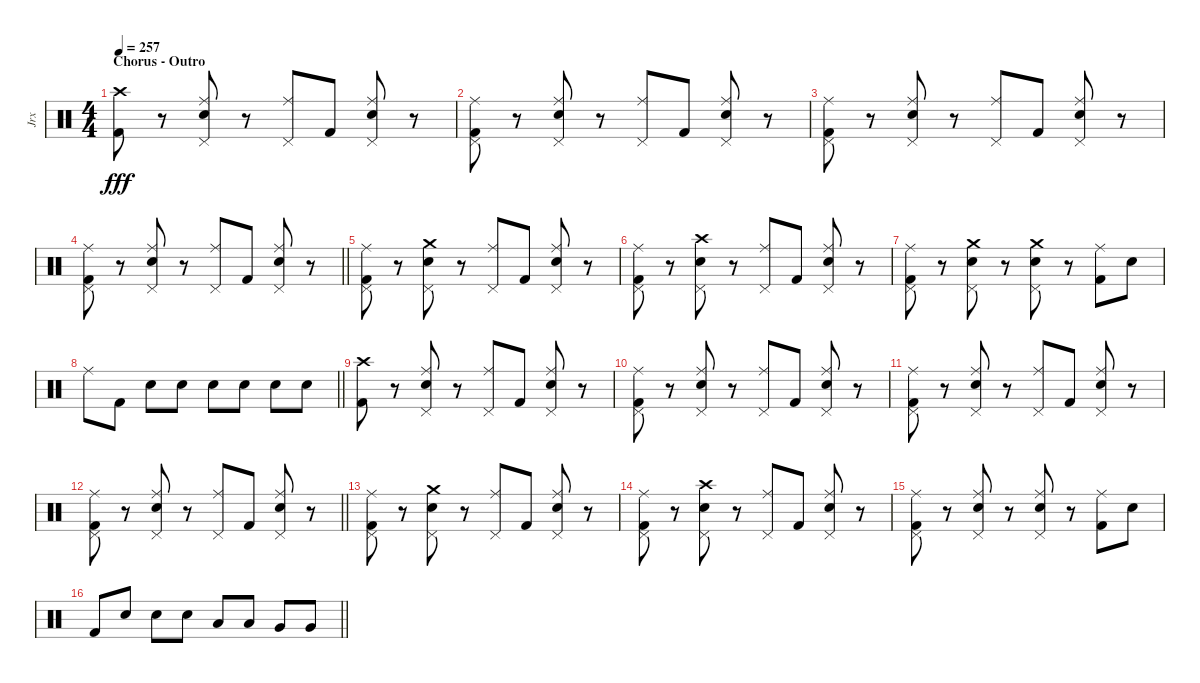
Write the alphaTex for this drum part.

\track ("Jrx" "Jrx") {instrument percussion}
\staff {score}
\articulation defaults
\ts (4 4)
\section ("" "Chorus - Outro")
\tempo 257
\clef neutral
\ks c
("Kick (hit) 2" "Crash high (hit)").8{dy fff} r.8 ("Pedal Hi-Hat (hit)" "Snare (hit) 2" "Ride (middle)").8 r.8 ("Pedal Hi-Hat (hit)" "Ride (middle)").8 "Kick (hit) 2".8 ("Pedal Hi-Hat (hit)" "Snare (hit) 2" "Ride (middle)").8 r.8 |
("Pedal Hi-Hat (hit)" "Kick (hit) 2" "Ride (middle)").8 r.8 ("Pedal Hi-Hat (hit)" "Snare (hit) 2" "Ride (middle)").8 r.8 ("Pedal Hi-Hat (hit)" "Ride (middle)").8 "Kick (hit) 2".8 ("Pedal Hi-Hat (hit)" "Snare (hit) 2" "Ride (middle)").8 r.8 |
("Pedal Hi-Hat (hit)" "Kick (hit) 2" "Ride (middle)").8 r.8 ("Pedal Hi-Hat (hit)" "Snare (hit) 2" "Ride (middle)").8 r.8 ("Pedal Hi-Hat (hit)" "Ride (middle)").8 "Kick (hit) 2".8 ("Pedal Hi-Hat (hit)" "Snare (hit) 2" "Ride (middle)").8 r.8 |
\barLineRight lightlight
("Pedal Hi-Hat (hit)" "Kick (hit) 2" "Ride (middle)").8 r.8 ("Pedal Hi-Hat (hit)" "Snare (hit) 2" "Ride (middle)").8 r.8 ("Pedal Hi-Hat (hit)" "Ride (middle)").8 "Kick (hit) 2".8 ("Pedal Hi-Hat (hit)" "Snare (hit) 2" "Ride (middle)").8 r.8 |
("Pedal Hi-Hat (hit)" "Kick (hit) 2" "Ride (middle)").8 r.8 ("Pedal Hi-Hat (hit)" "Snare (hit) 2" "Crash medium (hit)").8 r.8 ("Pedal Hi-Hat (hit)" "Ride (middle)").8 "Kick (hit) 2".8 ("Pedal Hi-Hat (hit)" "Snare (hit) 2" "Ride (middle)").8 r.8 |
("Pedal Hi-Hat (hit)" "Kick (hit) 2" "Ride (middle)").8 r.8 ("Pedal Hi-Hat (hit)" "Snare (hit) 2" "Crash high (hit)").8 r.8 ("Pedal Hi-Hat (hit)" "Ride (middle)").8 "Kick (hit) 2".8 ("Pedal Hi-Hat (hit)" "Snare (hit) 2" "Ride (middle)").8 r.8 |
("Pedal Hi-Hat (hit)" "Kick (hit) 2" "Ride (middle)").8 r.8 ("Pedal Hi-Hat (hit)" "Snare (hit) 2" "Crash medium (hit)").8 r.8 ("Pedal Hi-Hat (hit)" "Snare (hit) 2" "Crash medium (hit)").8 r.8 ("Kick (hit) 2" "Ride (middle)").8 "Snare (hit) 2".8 |
\barLineRight lightlight "Ride (middle)".8 "Kick (hit) 2".8 "Snare (hit) 2".8 "Snare (hit) 2".8 "Snare (hit) 2".8 "Snare (hit) 2".8 "Snare (hit) 2".8 "Snare (hit) 2".8
|
("Kick (hit) 2" "Crash high (hit)").8 r.8 ("Pedal Hi-Hat (hit)" "Snare (hit) 2" "Ride (middle)").8 r.8 ("Pedal Hi-Hat (hit)" "Ride (middle)").8 "Kick (hit) 2".8 ("Pedal Hi-Hat (hit)" "Snare (hit) 2" "Ride (middle)").8 r.8 |
("Pedal Hi-Hat (hit)" "Kick (hit) 2" "Ride (middle)").8 r.8 ("Pedal Hi-Hat (hit)" "Snare (hit) 2" "Ride (middle)").8 r.8 ("Pedal Hi-Hat (hit)" "Ride (middle)").8 "Kick (hit) 2".8 ("Pedal Hi-Hat (hit)" "Snare (hit) 2" "Ride (middle)").8 r.8 |
("Pedal Hi-Hat (hit)" "Kick (hit) 2" "Ride (middle)").8 r.8 ("Pedal Hi-Hat (hit)" "Snare (hit) 2" "Ride (middle)").8 r.8 ("Pedal Hi-Hat (hit)" "Ride (middle)").8 "Kick (hit) 2".8 ("Pedal Hi-Hat (hit)" "Snare (hit) 2" "Ride (middle)").8 r.8 |
\barLineRight lightlight
("Pedal Hi-Hat (hit)" "Kick (hit) 2" "Ride (middle)").8 r.8 ("Pedal Hi-Hat (hit)" "Snare (hit) 2" "Ride (middle)").8 r.8 ("Pedal Hi-Hat (hit)" "Ride (middle)").8 "Kick (hit) 2".8 ("Pedal Hi-Hat (hit)" "Snare (hit) 2" "Ride (middle)").8 r.8 |
("Pedal Hi-Hat (hit)" "Kick (hit) 2" "Ride (middle)").8 r.8 ("Pedal Hi-Hat (hit)" "Snare (hit) 2" "Crash medium (hit)").8 r.8 ("Pedal Hi-Hat (hit)" "Ride (middle)").8 "Kick (hit) 2".8 ("Pedal Hi-Hat (hit)" "Snare (hit) 2" "Ride (middle)").8 r.8 |
("Pedal Hi-Hat (hit)" "Kick (hit) 2" "Ride (middle)").8 r.8 ("Pedal Hi-Hat (hit)" "Snare (hit) 2" "Crash high (hit)").8 r.8 ("Pedal Hi-Hat (hit)" "Ride (middle)").8 "Kick (hit) 2".8 ("Pedal Hi-Hat (hit)" "Snare (hit) 2" "Ride (middle)").8 r.8 |
("Pedal Hi-Hat (hit)" "Kick (hit) 2" "Ride (middle)").8 r.8 ("Pedal Hi-Hat (hit)" "Snare (hit) 2" "Ride (middle)").8 r.8 ("Pedal Hi-Hat (hit)" "Snare (hit) 2" "Ride (middle)").8 r.8 ("Kick (hit) 2" "Ride (middle)").8 "Snare (hit) 2".8 |
\barLineRight lightlight "Kick (hit) 2".8 "Snare (hit) 2".8 "Snare (hit) 2".8 "Snare (hit) 2".8 "Low Tom (hit)".8 "Low Tom (hit)".8 "Very Low Tom (hit)".8 "Very Low Tom (hit)".8
